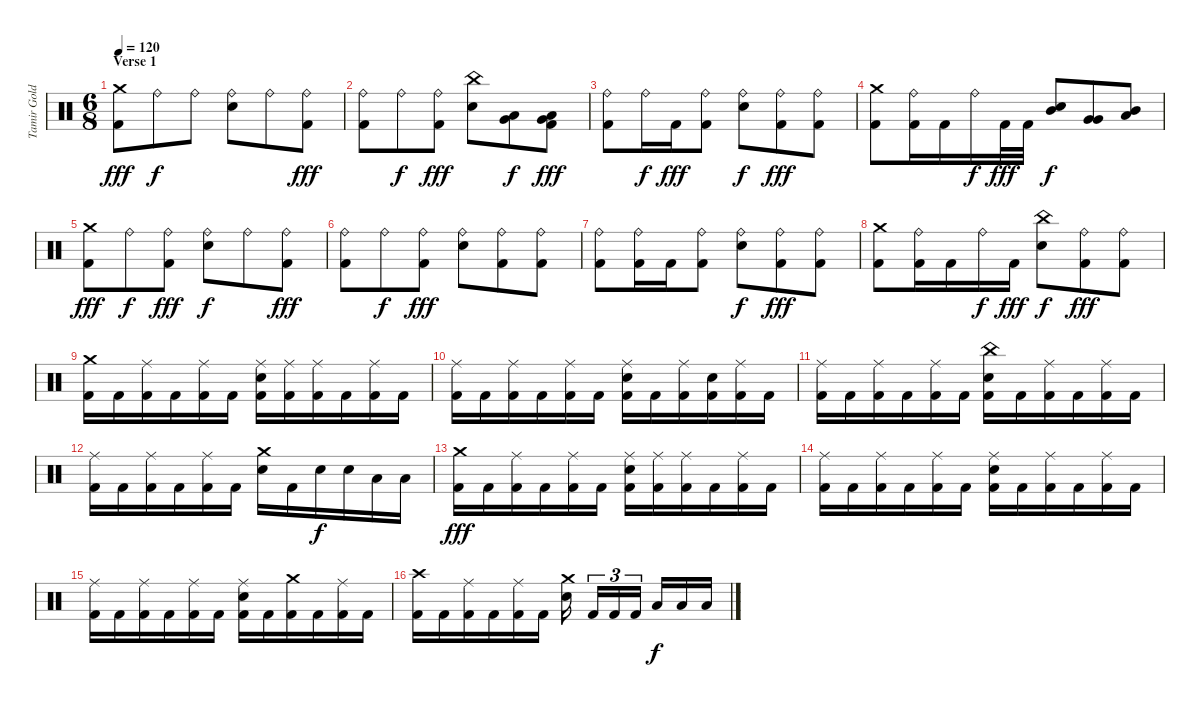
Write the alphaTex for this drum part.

\track ("Tamir Goldberg" "Tamir Gold") {instrument percussion}
\staff {score}
\articulation defaults
\ts (6 8)
\section ("" "Verse 1")
\tempo 120
\clef neutral
\ks c
("Crash medium (hit)" "Kick (hit) 2").8{dy fff} "Ride (bell)".8{dy f} "Ride (bell)".8 ("Ride (bell)" "Electric Snare (hit)").8 "Ride (bell)".8 ("Ride (bell)" "Kick (hit) 2").8{dy fff} |
("Ride (bell)" "Kick (hit) 2").8 "Ride (bell)".8{dy f} ("Ride (bell)" "Kick (hit) 2").8{dy fff} ("China (hit)" "Electric Snare (hit)").8 ("Low Tom (hit)" "Very Low Tom (hit)").8{dy f} ("Low Floor Tom (hit)" "Very Low Tom (hit)" "Kick (hit) 2").8{dy fff} |
("Ride (bell)" "Kick (hit) 2").8 "Ride (bell)".16{dy f} "Kick (hit) 2".16{dy fff} ("Ride (bell)" "Kick (hit) 2").8 ("Ride (bell)" "Electric Snare (hit)").8{dy f} ("Ride (bell)" "Kick (hit) 2").8{dy fff} ("Ride (bell)" "Kick (hit) 2").8 |
("Crash medium (hit)" "Kick (hit) 2").8 ("Ride (bell)" "Kick (hit) 2").16 "Kick (hit) 2".16 "Ride (bell)".16{dy f} "Kick (hit) 2".32{dy fff} "Kick (hit) 2".32 ("Mid Tom (hit)" "Electric Snare (hit)").8{dy f} ("Very Low Tom (hit)" "Very Low Tom (hit)").8 ("Mid Tom (hit)" "Low Tom (hit)").8 |
("Crash medium (hit)" "Kick (hit) 2").8{dy fff} "Ride (bell)".8{dy f} ("Ride (bell)" "Kick (hit) 2").8{dy fff} ("Ride (bell)" "Electric Snare (hit)").8{dy f} "Ride (bell)".8 ("Ride (bell)" "Kick (hit) 2").8{dy fff} |
("Ride (bell)" "Kick (hit) 2").8 "Ride (bell)".8{dy f} ("Ride (bell)" "Kick (hit) 2").8{dy fff} ("Ride (bell)" "Electric Snare (hit)").8 ("Ride (bell)" "Kick (hit) 2").8 ("Ride (bell)" "Kick (hit) 2").8 |
("Ride (bell)" "Kick (hit) 2").8 ("Ride (bell)" "Kick (hit) 2").16 "Kick (hit) 2".16 ("Ride (bell)" "Kick (hit) 2").8 ("Ride (bell)" "Electric Snare (hit)").8{dy f} ("Ride (bell)" "Kick (hit) 2").8{dy fff} ("Ride (bell)" "Kick (hit) 2").8 |
("Crash medium (hit)" "Kick (hit) 2").8 ("Ride (bell)" "Kick (hit) 2").16 "Kick (hit) 2".16 "Ride (bell)".16{dy f} "Kick (hit) 2".16{dy fff} ("China (hit)" "Electric Snare (hit)").8{dy f} ("Ride (bell)" "Kick (hit) 2").8{dy fff} ("Ride (bell)" "Kick (hit) 2").8 |
("Crash medium (hit)" "Kick (hit) 2").16 "Kick (hit) 2".16 ("Ride (middle)" "Kick (hit) 2").16 "Kick (hit) 2".16 ("Ride (middle)" "Kick (hit) 2").16 "Kick (hit) 2".16 ("Ride (middle)" "Electric Snare (hit)" "Kick (hit) 2").16 ("Ride (middle)" "Kick (hit) 2").16 ("Ride (middle)" "Kick (hit) 2").16 "Kick (hit) 2".16 ("Ride (middle)" "Kick (hit) 2").16 "Kick (hit) 2".16 |
("Ride (middle)" "Kick (hit) 2").16 "Kick (hit) 2".16 ("Ride (middle)" "Kick (hit) 2").16 "Kick (hit) 2".16 ("Ride (middle)" "Kick (hit) 2").16 "Kick (hit) 2".16 ("Ride (middle)" "Electric Snare (hit)" "Kick (hit) 2").16 "Kick (hit) 2".16 ("Ride (middle)" "Kick (hit) 2").16 ("Electric Snare (hit)" "Kick (hit) 2").16 ("Ride (middle)" "Kick (hit) 2").16 "Kick (hit) 2".16 |
("Ride (middle)" "Kick (hit) 2").16 "Kick (hit) 2".16 ("Ride (middle)" "Kick (hit) 2").16 "Kick (hit) 2".16 ("Ride (middle)" "Kick (hit) 2").16 "Kick (hit) 2".16 ("China (hit)" "Electric Snare (hit)" "Kick (hit) 2").16 "Kick (hit) 2".16 ("Ride (middle)" "Kick (hit) 2").16 "Kick (hit) 2".16 ("Ride (middle)" "Kick (hit) 2").16 "Kick (hit) 2".16 |
("Ride (middle)" "Kick (hit) 2").16 "Kick (hit) 2".16 ("Ride (middle)" "Kick (hit) 2").16 "Kick (hit) 2".16 ("Ride (middle)" "Kick (hit) 2").16 "Kick (hit) 2".16 ("Crash medium (hit)" "Electric Snare (hit)").16 "Kick (hit) 2".16 "Electric Snare (hit)".16{dy f} "Electric Snare (hit)".16 "Low Tom (hit)".16 "Low Tom (hit)".16 |
("Crash medium (hit)" "Kick (hit) 2").16{dy fff} "Kick (hit) 2".16 ("Ride (middle)" "Kick (hit) 2").16 "Kick (hit) 2".16 ("Ride (middle)" "Kick (hit) 2").16 "Kick (hit) 2".16 ("Ride (middle)" "Electric Snare (hit)" "Kick (hit) 2").16 ("Ride (middle)" "Kick (hit) 2").16 ("Ride (middle)" "Kick (hit) 2").16 "Kick (hit) 2".16 ("Ride (middle)" "Kick (hit) 2").16 "Kick (hit) 2".16 |
("Ride (middle)" "Kick (hit) 2").16 "Kick (hit) 2".16 ("Ride (middle)" "Kick (hit) 2").16 "Kick (hit) 2".16 ("Ride (middle)" "Kick (hit) 2").16 "Kick (hit) 2".16 ("Ride (middle)" "Electric Snare (hit)" "Kick (hit) 2").16 "Kick (hit) 2".16 ("Ride (middle)" "Kick (hit) 2").16 "Kick (hit) 2".16 ("Ride (middle)" "Kick (hit) 2").16 "Kick (hit) 2".16 |
("Ride (middle)" "Kick (hit) 2").16 "Kick (hit) 2".16 ("Ride (middle)" "Kick (hit) 2").16 "Kick (hit) 2".16 ("Ride (middle)" "Kick (hit) 2").16 "Kick (hit) 2".16 ("Ride (middle)" "Electric Snare (hit)" "Kick (hit) 2").16 "Kick (hit) 2".16 ("Crash medium (hit)" "Kick (hit) 2").16 "Kick (hit) 2".16 ("Ride (middle)" "Kick (hit) 2").16 "Kick (hit) 2".16 |
("Crash high (hit)" "Kick (hit) 2").16 "Kick (hit) 2".16 ("Ride (middle)" "Kick (hit) 2").16 "Kick (hit) 2".16 ("Ride (middle)" "Kick (hit) 2").16 "Kick (hit) 2".16 ("Crash medium (hit)" "Electric Snare (hit)").16 "Kick (hit) 2".16{tu (3 2)} "Kick (hit) 2".16{tu (3 2)} "Kick (hit) 2".16{tu (3 2)} "Low Tom (hit)".16{dy f} "Low Tom (hit)".16 "Low Tom (hit)".16
